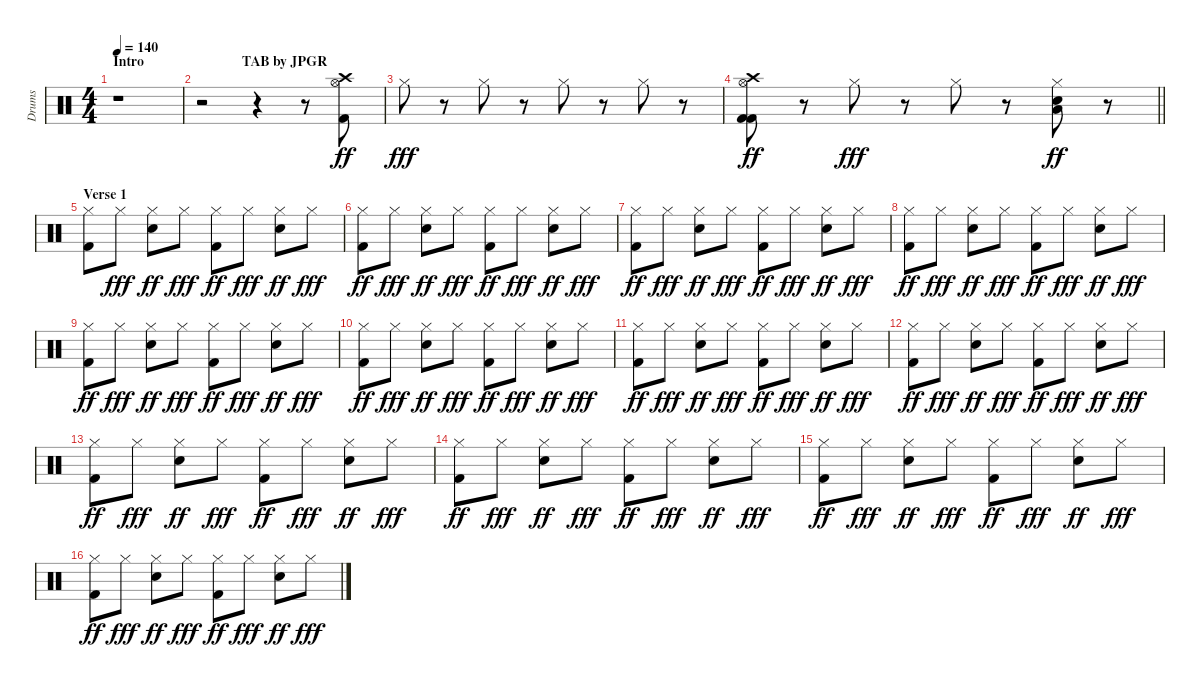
\track ("Drums" "Drums") {instrument percussion}
\staff {score}
\articulation defaults
\ts (4 4)
\section ("" "Intro                            TAB by JPGR")
\tempo 140
\clef neutral
\ks c
r.1{dy ff} |
r.2 r.4 r.8 ("Crash high (hit)" "Hi-Hat (open)" "Kick (hit) 2").8 |
"Hi-Hat (closed)".8{dy fff} r.8 "Hi-Hat (closed)".8 r.8 "Hi-Hat (closed)".8 r.8 "Hi-Hat (closed)".8 r.8 |
\barLineRight lightlight
("Kick (hit) 2" "Crash high (hit)" "Hi-Hat (open)" "Kick (hit) 2").8{dy ff} r.8 "Hi-Hat (closed)".8{dy fff} r.8 "Hi-Hat (closed)".8 r.8 ("Hi-Hat (closed)" "Low Floor Tom (hit)" "Snare (hit) 2").8{dy ff} r.8 |
\section ("" "Verse 1")
("Hi-Hat (closed)" "Kick (hit) 2").8 "Hi-Hat (closed)".8{dy fff} ("Hi-Hat (closed)" "Snare (hit) 2").8{dy ff} "Hi-Hat (closed)".8{dy fff} ("Hi-Hat (closed)" "Kick (hit) 2").8{dy ff} "Hi-Hat (closed)".8{dy fff} ("Hi-Hat (closed)" "Snare (hit) 2").8{dy ff} "Hi-Hat (closed)".8{dy fff} |
("Hi-Hat (closed)" "Kick (hit) 2").8{dy ff} "Hi-Hat (closed)".8{dy fff} ("Hi-Hat (closed)" "Snare (hit) 2").8{dy ff} "Hi-Hat (closed)".8{dy fff} ("Hi-Hat (closed)" "Kick (hit) 2").8{dy ff} "Hi-Hat (closed)".8{dy fff} ("Hi-Hat (closed)" "Snare (hit) 2").8{dy ff} "Hi-Hat (closed)".8{dy fff} |
("Hi-Hat (closed)" "Kick (hit) 2").8{dy ff} "Hi-Hat (closed)".8{dy fff} ("Hi-Hat (closed)" "Snare (hit) 2").8{dy ff} "Hi-Hat (closed)".8{dy fff} ("Hi-Hat (closed)" "Kick (hit) 2").8{dy ff} "Hi-Hat (closed)".8{dy fff} ("Hi-Hat (closed)" "Snare (hit) 2").8{dy ff} "Hi-Hat (closed)".8{dy fff} |
("Hi-Hat (closed)" "Kick (hit) 2").8{dy ff} "Hi-Hat (closed)".8{dy fff} ("Hi-Hat (closed)" "Snare (hit) 2").8{dy ff} "Hi-Hat (closed)".8{dy fff} ("Hi-Hat (closed)" "Kick (hit) 2").8{dy ff} "Hi-Hat (closed)".8{dy fff} ("Hi-Hat (closed)" "Snare (hit) 2").8{dy ff} "Hi-Hat (closed)".8{dy fff} |
("Hi-Hat (closed)" "Kick (hit) 2").8{dy ff} "Hi-Hat (closed)".8{dy fff} ("Hi-Hat (closed)" "Snare (hit) 2").8{dy ff} "Hi-Hat (closed)".8{dy fff} ("Hi-Hat (closed)" "Kick (hit) 2").8{dy ff} "Hi-Hat (closed)".8{dy fff} ("Hi-Hat (closed)" "Snare (hit) 2").8{dy ff} "Hi-Hat (closed)".8{dy fff} |
("Hi-Hat (closed)" "Kick (hit) 2").8{dy ff} "Hi-Hat (closed)".8{dy fff} ("Hi-Hat (closed)" "Snare (hit) 2").8{dy ff} "Hi-Hat (closed)".8{dy fff} ("Hi-Hat (closed)" "Kick (hit) 2").8{dy ff} "Hi-Hat (closed)".8{dy fff} ("Hi-Hat (closed)" "Snare (hit) 2").8{dy ff} "Hi-Hat (closed)".8{dy fff} |
("Hi-Hat (closed)" "Kick (hit) 2").8{dy ff} "Hi-Hat (closed)".8{dy fff} ("Hi-Hat (closed)" "Snare (hit) 2").8{dy ff} "Hi-Hat (closed)".8{dy fff} ("Hi-Hat (closed)" "Kick (hit) 2").8{dy ff} "Hi-Hat (closed)".8{dy fff} ("Hi-Hat (closed)" "Snare (hit) 2").8{dy ff} "Hi-Hat (closed)".8{dy fff} |
("Hi-Hat (closed)" "Kick (hit) 2").8{dy ff} "Hi-Hat (closed)".8{dy fff} ("Hi-Hat (closed)" "Snare (hit) 2").8{dy ff} "Hi-Hat (closed)".8{dy fff} ("Hi-Hat (closed)" "Kick (hit) 2").8{dy ff} "Hi-Hat (closed)".8{dy fff} ("Hi-Hat (closed)" "Snare (hit) 2").8{dy ff} "Hi-Hat (closed)".8{dy fff} |
("Hi-Hat (closed)" "Kick (hit) 2").8{dy ff} "Hi-Hat (closed)".8{dy fff} ("Hi-Hat (closed)" "Snare (hit) 2").8{dy ff} "Hi-Hat (closed)".8{dy fff} ("Hi-Hat (closed)" "Kick (hit) 2").8{dy ff} "Hi-Hat (closed)".8{dy fff} ("Hi-Hat (closed)" "Snare (hit) 2").8{dy ff} "Hi-Hat (closed)".8{dy fff} |
("Hi-Hat (closed)" "Kick (hit) 2").8{dy ff} "Hi-Hat (closed)".8{dy fff} ("Hi-Hat (closed)" "Snare (hit) 2").8{dy ff} "Hi-Hat (closed)".8{dy fff} ("Hi-Hat (closed)" "Kick (hit) 2").8{dy ff} "Hi-Hat (closed)".8{dy fff} ("Hi-Hat (closed)" "Snare (hit) 2").8{dy ff} "Hi-Hat (closed)".8{dy fff} |
("Hi-Hat (closed)" "Kick (hit) 2").8{dy ff} "Hi-Hat (closed)".8{dy fff} ("Hi-Hat (closed)" "Snare (hit) 2").8{dy ff} "Hi-Hat (closed)".8{dy fff} ("Hi-Hat (closed)" "Kick (hit) 2").8{dy ff} "Hi-Hat (closed)".8{dy fff} ("Hi-Hat (closed)" "Snare (hit) 2").8{dy ff} "Hi-Hat (closed)".8{dy fff} |
("Hi-Hat (closed)" "Kick (hit) 2").8{dy ff} "Hi-Hat (closed)".8{dy fff} ("Hi-Hat (closed)" "Snare (hit) 2").8{dy ff} "Hi-Hat (closed)".8{dy fff} ("Hi-Hat (closed)" "Kick (hit) 2").8{dy ff} "Hi-Hat (closed)".8{dy fff} ("Hi-Hat (closed)" "Snare (hit) 2").8{dy ff} "Hi-Hat (closed)".8{dy fff}
